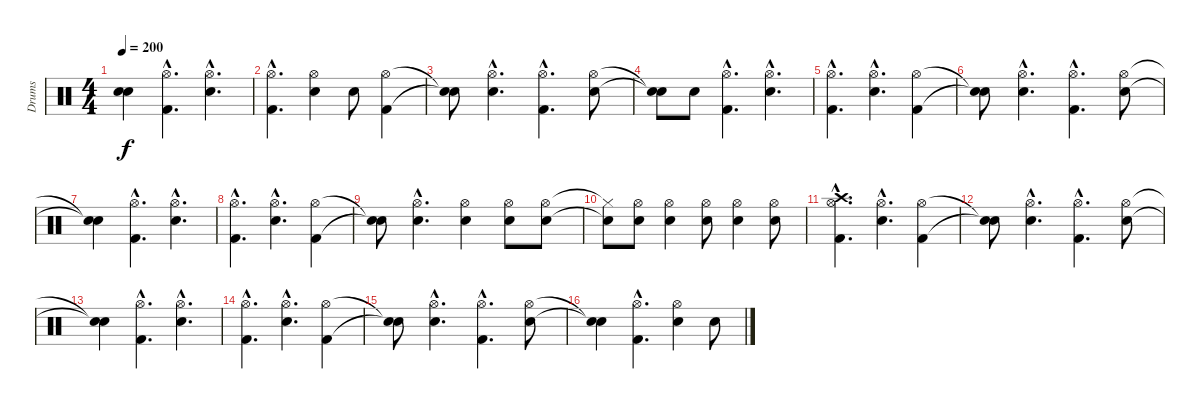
\track ("Drums" "Drums") {instrument percussion}
\staff {score}
\articulation defaults
\ts (4 4)
\tempo 200
\clef neutral
\ks c
("Snare (hit)"{t} "Snare (hit)"{t}).4{dy f} ("Hi-Hat (open)"{hac} "Kick (hit) 2"{hac}).4{d} ("Hi-Hat (open)"{hac} "Snare (hit) 2"{hac}).4{d} |
("Hi-Hat (open)"{hac} "Kick (hit) 2"{hac}).4{d} ("Hi-Hat (open)" "Snare (hit) 2").4 "Snare (hit) 2".8 ("Hi-Hat (open)" "Kick (hit) 2").4 |
("Snare (hit)"{t} "Snare (hit)"{t}).8 ("Hi-Hat (open)"{hac} "Snare (hit) 2"{hac}).4{d} ("Hi-Hat (open)"{hac} "Kick (hit) 2"{hac}).4{d} ("Hi-Hat (open)" "Snare (hit) 2").8 |
("Snare (hit)"{t} "Snare (hit) 2"{t}).8 "Snare (hit) 2".8 ("Hi-Hat (open)"{hac} "Kick (hit) 2"{hac}).4{d} ("Hi-Hat (open)"{hac} "Snare (hit) 2"{hac}).4{d} |
("Hi-Hat (open)"{hac} "Kick (hit) 2"{hac}).4{d} ("Hi-Hat (open)"{hac} "Snare (hit) 2"{hac}).4{d} ("Hi-Hat (open)" "Kick (hit) 2").4 |
("Snare (hit)"{t} "Snare (hit)"{t}).8 ("Hi-Hat (open)"{hac} "Snare (hit) 2"{hac}).4{d} ("Hi-Hat (open)"{hac} "Kick (hit) 2"{hac}).4{d} ("Hi-Hat (open)" "Snare (hit) 2").8 |
("Snare (hit)"{t} "Snare (hit)"{t}).4 ("Hi-Hat (open)"{hac} "Kick (hit) 2"{hac}).4{d} ("Hi-Hat (open)"{hac} "Snare (hit) 2"{hac}).4{d} |
("Hi-Hat (open)"{hac} "Kick (hit) 2"{hac}).4{d} ("Hi-Hat (open)"{hac} "Snare (hit) 2"{hac}).4{d} ("Hi-Hat (open)" "Kick (hit) 2").4 |
("Snare (hit)"{t} "Snare (hit)"{t}).8 ("Hi-Hat (open)"{hac} "Snare (hit) 2"{hac}).4{d} ("Hi-Hat (open)" "Snare (hit) 2").4 ("Hi-Hat (open)" "Snare (hit) 2").8 ("Hi-Hat (open)" "Snare (hit) 2").8 |
("Hi-Hat (closed)"{t} "Snare (hit) 2"{t}).8 ("Hi-Hat (open)" "Snare (hit) 2").8 ("Hi-Hat (open)" "Snare (hit) 2").4 ("Hi-Hat (open)" "Snare (hit) 2").8 ("Hi-Hat (open)" "Snare (hit) 2").4 ("Hi-Hat (open)" "Snare (hit) 2").8 |
("Crash high (hit)"{hac} "Hi-Hat (open)"{hac} "Kick (hit) 2"{hac}).4{d} ("Hi-Hat (open)"{hac} "Snare (hit) 2"{hac}).4{d} ("Hi-Hat (open)" "Kick (hit) 2").4 |
("Snare (hit)"{t} "Snare (hit)"{t}).8 ("Hi-Hat (open)"{hac} "Snare (hit) 2"{hac}).4{d} ("Hi-Hat (open)"{hac} "Kick (hit) 2"{hac}).4{d} ("Hi-Hat (open)" "Snare (hit) 2").8 |
("Snare (hit)"{t} "Snare (hit)"{t}).4 ("Hi-Hat (open)"{hac} "Kick (hit) 2"{hac}).4{d} ("Hi-Hat (open)"{hac} "Snare (hit) 2"{hac}).4{d} |
("Hi-Hat (open)"{hac} "Kick (hit) 2"{hac}).4{d} ("Hi-Hat (open)"{hac} "Snare (hit) 2"{hac}).4{d} ("Hi-Hat (open)" "Kick (hit) 2").4 |
("Snare (hit)"{t} "Snare (hit)"{t}).8 ("Hi-Hat (open)"{hac} "Snare (hit) 2"{hac}).4{d} ("Hi-Hat (open)"{hac} "Kick (hit) 2"{hac}).4{d} ("Hi-Hat (open)" "Snare (hit) 2").8 |
("Snare (hit)"{t} "Snare (hit)"{t}).4 ("Hi-Hat (open)"{hac} "Kick (hit) 2"{hac}).4{d} ("Hi-Hat (open)" "Snare (hit) 2").4 "Snare (hit) 2".8
